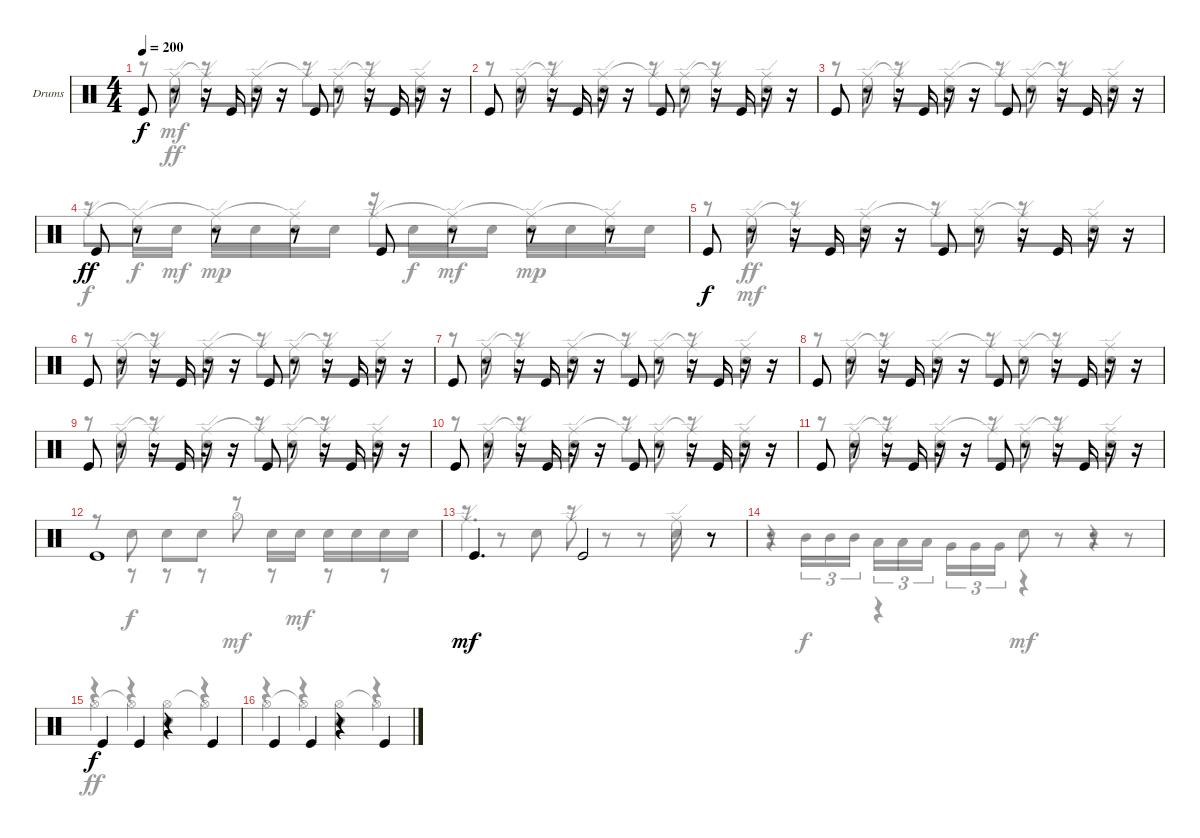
\defaultSystemsLayout 4
\bracketExtendMode groupsimilarinstruments
\firstSystemTrackNameOrientation horizontal
\otherSystemsTrackNameOrientation horizontal
\track ("Drum" "Drums") {instrument percussion}
\staff {score}
\articulation defaults
\voice
\ts (4 4)
\tempo 200
\clef neutral
\ks c "Kick (hit)".8{dy f}
r.8 r.16 "Kick (hit)".16 r.16 r.16 "Kick (hit)".8 r.8 r.16 "Kick (hit)".16 r.16 r.16 |
"Kick (hit)".8 r.8 r.16 "Kick (hit)".16 r.16 r.16 "Kick (hit)".8 r.8 r.16 "Kick (hit)".16 r.16 r.16 |
"Kick (hit)".8 r.8 r.16 "Kick (hit)".16 r.16 r.16 "Kick (hit)".8 r.8 r.16 "Kick (hit)".16 r.16 r.16 |
"Kick (hit)".8{dy ff} r.8 r.8 r.8 "Kick (hit)".8 r.8 r.8 r.8 |
"Kick (hit)".8{dy f} r.8 r.16 "Kick (hit)".16 r.16 r.16 "Kick (hit)".8 r.8 r.16 "Kick (hit)".16 r.16 r.16 |
"Kick (hit)".8 r.8 r.16 "Kick (hit)".16 r.16 r.16 "Kick (hit)".8 r.8 r.16 "Kick (hit)".16 r.16 r.16 |
"Kick (hit)".8 r.8 r.16 "Kick (hit)".16 r.16 r.16 "Kick (hit)".8 r.8 r.16 "Kick (hit)".16 r.16 r.16 |
"Kick (hit)".8 r.8 r.16 "Kick (hit)".16 r.16 r.16 "Kick (hit)".8 r.8 r.16 "Kick (hit)".16 r.16 r.16 |
"Kick (hit)".8 r.8 r.16 "Kick (hit)".16 r.16 r.16 "Kick (hit)".8 r.8 r.16 "Kick (hit)".16 r.16 r.16 |
"Kick (hit)".8 r.8 r.16 "Kick (hit)".16 r.16 r.16 "Kick (hit)".8 r.8 r.16 "Kick (hit)".16 r.16 r.16 |
"Kick (hit)".8 r.8 r.16 "Kick (hit)".16 r.16 r.16 "Kick (hit)".8 r.8 r.16 "Kick (hit)".16 r.16 r.16 |
"Kick (hit)".1 |
"Kick (hit)".4{d dy mf} "Kick (hit)".2 r.8 |
|
"Kick (hit)".4{dy f} "Kick (hit)".4 r.4 "Kick (hit)".4 |
"Kick (hit)".4 "Kick (hit)".4 r.4 "Kick (hit)".4
\voice
\clef neutral
\ottava regular
\simile none
\ks c
r.8{dy mf} "Snare (hit) 2".8 r.8 "Snare (hit) 2".8 r.8 "Snare (hit) 2".8 r.8 "Snare (hit) 2".8 |
r.8 "Snare (hit) 2".8 r.8 "Snare (hit) 2".8 r.8 "Snare (hit) 2".8 r.8 "Snare (hit) 2".8 |
r.8 "Snare (hit) 2".8 r.8 "Snare (hit) 2".8 r.8 "Snare (hit) 2".8 r.8 "Snare (hit) 2".8 |
r.8 "Snare (hit) 2".16{dy f} "Snare (hit) 2".16{dy mf} "Snare (hit) 2".16{dy mp} "Snare (hit) 2".16 "Snare (hit) 2".16 "Snare (hit) 2".16 r.16 "Snare (hit) 2".16{dy f} "Snare (hit) 2".16{dy mf} "Snare (hit) 2".16 "Snare (hit) 2".16{dy mp} "Snare (hit) 2".16 "Snare (hit) 2".16 "Snare (hit) 2".16 |
r.8 "Snare (hit) 2".8{dy mf} r.8 "Snare (hit) 2".8 r.8 "Snare (hit) 2".8 r.8 "Snare (hit) 2".8 |
r.8 "Snare (hit) 2".8 r.8 "Snare (hit) 2".8 r.8 "Snare (hit) 2".8 r.8 "Snare (hit) 2".8 |
r.8 "Snare (hit) 2".8 r.8 "Snare (hit) 2".8 r.8 "Snare (hit) 2".8 r.8 "Snare (hit) 2".8 |
r.8 "Snare (hit) 2".8 r.8 "Snare (hit) 2".8 r.8 "Snare (hit) 2".8 r.8 "Snare (hit) 2".8 |
r.8 "Snare (hit) 2".8 r.8 "Snare (hit) 2".8 r.8 "Snare (hit) 2".8 r.8 "Snare (hit) 2".8 |
r.8 "Snare (hit) 2".8 r.8 "Snare (hit) 2".8 r.8 "Snare (hit) 2".8 r.8 "Snare (hit) 2".8 |
r.8 "Snare (hit) 2".8 r.8 "Snare (hit) 2".8 r.8 "Snare (hit) 2".8 r.8 "Snare (hit) 2".8 |
r.8 "Snare (hit) 2".8{dy f} "Snare (hit) 2".8 "Snare (hit) 2".8 r.8 "Snare (hit) 2".16 "Snare (hit) 2".16{dy mf} "Snare (hit) 2".16 "Snare (hit) 2".16 "Snare (hit) 2".16 "Snare (hit) 2".16 |
r.8 r.8 "Snare (hit) 2".8 r.8 r.8 r.8 "Snare (hit) 2".8 r.8 |
r.8 "Mid Tom (hit)".16{tu (3 2) dy f} "Mid Tom (hit)".16{tu (3 2)} "Mid Tom (hit)".16{tu (3 2)} "Low Tom (hit)".16{tu (3 2)} "Low Tom (hit)".16{tu (3 2)} "Low Tom (hit)".16{tu (3 2)} "Very Low Tom (hit)".16{tu (3 2)} "Very Low Tom (hit)".16{tu (3 2)} "Very Low Tom (hit)".16{tu (3 2)} "Snare (hit) 2".8{dy mf} r.8 r.8 r.8 |
r.4 r.4 "Snare (hit) 2".4 r.4 |
r.4 r.4 "Snare (hit) 2".4 r.4
\voice
\clef neutral
\ottava regular
\simile none
\ks c
r.8{dy ff} "Ride (edge)".8 "Ride (edge)"{t}.8 "Ride (edge)".8 "Ride (edge)"{t}.8 "Ride (edge)".8 "Ride (edge)"{t}.8 "Ride (edge)".8 |
r.8 "Ride (edge)".8 "Ride (edge)"{t}.8 "Ride (edge)".8 "Ride (edge)"{t}.8 "Ride (edge)".8 "Ride (edge)"{t}.8 "Ride (edge)".8 |
r.8 "Ride (edge)".8 "Ride (edge)"{t}.8 "Ride (edge)".8 "Ride (edge)"{t}.8 "Ride (edge)".8 "Ride (edge)"{t}.8 "Ride (edge)".8 |
"Ride (edge)".8{dy f} "Ride (edge)"{t}.8 "Ride (edge)"{t}.8 "Ride (edge)"{t}.8 "Ride (edge)".8 "Ride (edge)"{t}.8 "Ride (edge)"{t}.8 "Ride (edge)"{t}.8 |
r.8 "Ride (edge)".8{dy ff} "Ride (edge)"{t}.8 "Ride (edge)".8 "Ride (edge)"{t}.8 "Ride (edge)".8 "Ride (edge)"{t}.8 "Ride (edge)".8 |
r.8 "Ride (edge)".8 "Ride (edge)"{t}.8 "Ride (edge)".8 "Ride (edge)"{t}.8 "Ride (edge)".8 "Ride (edge)"{t}.8 "Ride (edge)".8 |
r.8 "Ride (edge)".8 "Ride (edge)"{t}.8 "Ride (edge)".8 "Ride (edge)"{t}.8 "Ride (edge)".8 "Ride (edge)"{t}.8 "Ride (edge)".8 |
r.8 "Ride (edge)".8 "Ride (edge)"{t}.8 "Ride (edge)".8 "Ride (edge)"{t}.8 "Ride (edge)".8 "Ride (edge)"{t}.8 "Ride (edge)".8 |
r.8 "Ride (edge)".8 "Ride (edge)"{t}.8 "Ride (edge)".8 "Ride (edge)"{t}.8 "Ride (edge)".8 "Ride (edge)"{t}.8 "Ride (edge)".8 |
r.8 "Ride (edge)".8 "Ride (edge)"{t}.8 "Ride (edge)".8 "Ride (edge)"{t}.8 "Ride (edge)".8 "Ride (edge)"{t}.8 "Ride (edge)".8 |
r.8 "Ride (edge)".8 "Ride (edge)"{t}.8 "Ride (edge)".8 "Ride (edge)"{t}.8 "Ride (edge)".8 "Ride (edge)"{t}.8 "Ride (edge)".8 |
r.8 r.8 r.8 r.8 "Hi-Hat (open)".8{dy mf} r.8 r.8 r.8 |
"Ride (edge)".4{d} "Ride (edge)".8 r.8 r.8 "Ride (edge)".8 r.8 |
r.4 r.4 r.4 r.4 |
"Hi-Hat (open)".4{dy ff} "Hi-Hat (open)"{t}.4 "Hi-Hat (open)".4 "Hi-Hat (open)"{t}.4 |
"Hi-Hat (open)".4 "Hi-Hat (open)"{t}.4 "Hi-Hat (open)".4 "Hi-Hat (open)"{t}.4
